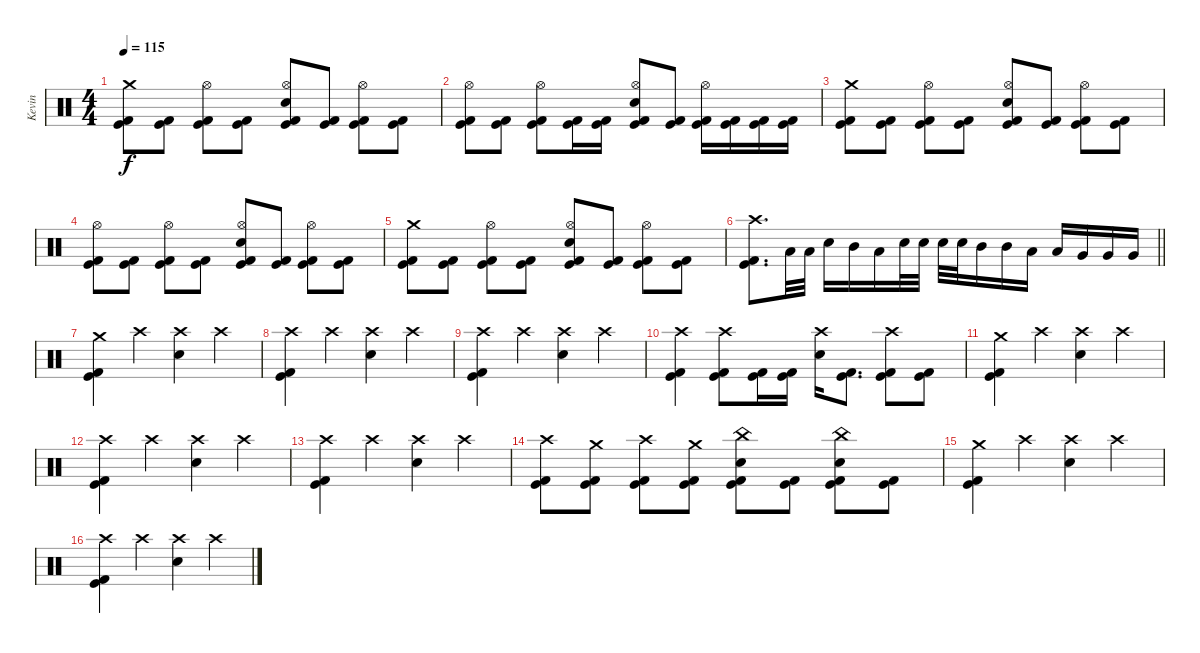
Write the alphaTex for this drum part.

\track ("Kevin" "Kevin") {instrument percussion}
\staff {score}
\articulation defaults
\ts (4 4)
\tempo 115
\clef neutral
\ks c
("Crash medium (hit)" "Kick (hit)" "Kick (hit) 2").8{dy f} ("Kick (hit)" "Kick (hit) 2").8 ("Hi-Hat (open)" "Kick (hit)" "Kick (hit) 2").8 ("Kick (hit)" "Kick (hit) 2").8 ("Hi-Hat (open)" "Electric Snare (hit)" "Kick (hit)" "Kick (hit) 2").8 ("Kick (hit)" "Kick (hit) 2").8 ("Hi-Hat (open)" "Kick (hit)" "Kick (hit) 2").8 ("Kick (hit)" "Kick (hit) 2").8 |
("Hi-Hat (open)" "Kick (hit)" "Kick (hit) 2").8 ("Kick (hit)" "Kick (hit) 2").8 ("Hi-Hat (open)" "Kick (hit)" "Kick (hit) 2").8 ("Kick (hit)" "Kick (hit) 2").16 ("Kick (hit)" "Kick (hit) 2").16 ("Hi-Hat (open)" "Electric Snare (hit)" "Kick (hit)" "Kick (hit) 2").8 ("Kick (hit)" "Kick (hit) 2").8 ("Hi-Hat (open)" "Kick (hit)" "Kick (hit) 2").16 ("Kick (hit)" "Kick (hit) 2").16 ("Kick (hit)" "Kick (hit) 2").16 ("Kick (hit)" "Kick (hit) 2").16 |
("Crash medium (hit)" "Kick (hit)" "Kick (hit) 2").8 ("Kick (hit)" "Kick (hit) 2").8 ("Hi-Hat (open)" "Kick (hit)" "Kick (hit) 2").8 ("Kick (hit)" "Kick (hit) 2").8 ("Hi-Hat (open)" "Electric Snare (hit)" "Kick (hit)" "Kick (hit) 2").8 ("Kick (hit)" "Kick (hit) 2").8 ("Hi-Hat (open)" "Kick (hit)" "Kick (hit) 2").8 ("Kick (hit)" "Kick (hit) 2").8 |
("Hi-Hat (open)" "Kick (hit)" "Kick (hit) 2").8 ("Kick (hit)" "Kick (hit) 2").8 ("Hi-Hat (open)" "Kick (hit)" "Kick (hit) 2").8 ("Kick (hit)" "Kick (hit) 2").8 ("Hi-Hat (open)" "Electric Snare (hit)" "Kick (hit)" "Kick (hit) 2").8 ("Kick (hit)" "Kick (hit) 2").8 ("Hi-Hat (open)" "Kick (hit)" "Kick (hit) 2").8 ("Kick (hit)" "Kick (hit) 2").8 |
("Crash medium (hit)" "Kick (hit)" "Kick (hit) 2").8 ("Kick (hit)" "Kick (hit) 2").8 ("Hi-Hat (open)" "Kick (hit)" "Kick (hit) 2").8 ("Kick (hit)" "Kick (hit) 2").8 ("Hi-Hat (open)" "Electric Snare (hit)" "Kick (hit)" "Kick (hit) 2").8 ("Kick (hit)" "Kick (hit) 2").8 ("Hi-Hat (open)" "Kick (hit)" "Kick (hit) 2").8 ("Kick (hit)" "Kick (hit) 2").8 |
\barLineRight lightlight
("Crash high (hit)" "Kick (hit)" "Kick (hit) 2").8{d} "Low Tom (hit)".32 "Low Tom (hit)".32 "Electric Snare (hit)".16 "Mid Tom (hit)".16 "Low Tom (hit)".16 "Electric Snare (hit)".32 "Electric Snare (hit)".32 "Electric Snare (hit)".32 "Electric Snare (hit)".32 "Mid Tom (hit)".16 "Mid Tom (hit)".16 "Low Tom (hit)".16 "Low Tom (hit)".16 "Very Low Tom (hit)".16 "Very Low Tom (hit)".16 "Very Low Tom (hit)".16 |
\section ("" "")
("Crash medium (hit)" "Kick (hit)" "Kick (hit) 2").4 "Crash high (hit)".4 ("Crash high (hit)" "Electric Snare (hit)").4 "Crash high (hit)".4 |
("Crash high (hit)" "Kick (hit)" "Kick (hit) 2").4 "Crash high (hit)".4 ("Crash high (hit)" "Electric Snare (hit)").4 "Crash high (hit)".4 |
("Crash high (hit)" "Kick (hit)" "Kick (hit) 2").4 "Crash high (hit)".4 ("Crash high (hit)" "Electric Snare (hit)").4 "Crash high (hit)".4 |
("Crash high (hit)" "Kick (hit)" "Kick (hit) 2").4 ("Crash high (hit)" "Kick (hit)" "Kick (hit) 2").8 ("Kick (hit)" "Kick (hit) 2").16 ("Kick (hit)" "Kick (hit) 2").16 ("Crash high (hit)" "Electric Snare (hit)").16 ("Kick (hit) 2" "Kick (hit)").8{d} ("Crash high (hit)" "Kick (hit)" "Kick (hit) 2").8 ("Kick (hit)" "Kick (hit) 2").8 |
("Crash medium (hit)" "Kick (hit)" "Kick (hit) 2").4 "Crash high (hit)".4 ("Crash high (hit)" "Electric Snare (hit)").4 "Crash high (hit)".4 |
("Crash high (hit)" "Kick (hit)" "Kick (hit) 2").4 "Crash high (hit)".4 ("Crash high (hit)" "Electric Snare (hit)").4 "Crash high (hit)".4 |
("Crash high (hit)" "Kick (hit)" "Kick (hit) 2").4 "Crash high (hit)".4 ("Crash high (hit)" "Electric Snare (hit)").4 "Crash high (hit)".4 |
("Crash high (hit)" "Kick (hit)" "Kick (hit) 2").8 ("Crash medium (hit)" "Kick (hit)" "Kick (hit) 2").8 ("Crash high (hit)" "Kick (hit)" "Kick (hit) 2").8 ("Crash medium (hit)" "Kick (hit)" "Kick (hit) 2").8 ("China (hit)" "Electric Snare (hit)" "Kick (hit)" "Kick (hit) 2").8 ("Kick (hit)" "Kick (hit) 2").8 ("China (hit)" "Electric Snare (hit)" "Kick (hit)" "Kick (hit) 2").8 ("Kick (hit)" "Kick (hit) 2").8 |
("Crash medium (hit)" "Kick (hit)" "Kick (hit) 2").4 "Crash high (hit)".4 ("Crash high (hit)" "Electric Snare (hit)").4 "Crash high (hit)".4 |
("Crash high (hit)" "Kick (hit)" "Kick (hit) 2").4 "Crash high (hit)".4 ("Crash high (hit)" "Electric Snare (hit)").4 "Crash high (hit)".4
